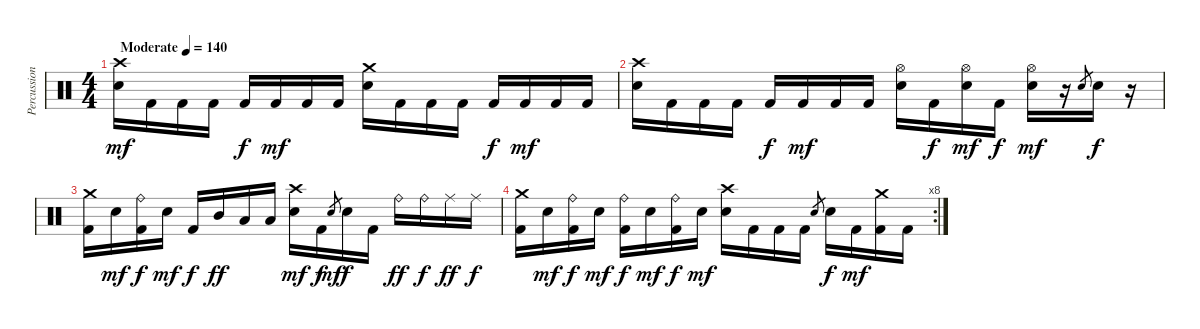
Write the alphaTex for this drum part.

\track ("Percussion" "Percussion") {instrument percussion}
\staff {score}
\articulation defaults
\ts (4 4)
\tempo (140 "Moderate")
\clef neutral
\ks c
("Crash high (hit)" "Electric Snare (hit)").16{dy mf} "Kick (hit) 2".16 "Kick (hit) 2".16 "Kick (hit) 2".16 "Kick (hit) 2".16{dy f} "Kick (hit) 2".16{dy mf} "Kick (hit) 2".16 "Kick (hit) 2".16 ("Crash medium (hit)" "Electric Snare (hit)").16 "Kick (hit) 2".16 "Kick (hit) 2".16 "Kick (hit) 2".16 "Kick (hit) 2".16{dy f} "Kick (hit) 2".16{dy mf} "Kick (hit) 2".16 "Kick (hit) 2".16 |
("Crash high (hit)" "Electric Snare (hit)").16 "Kick (hit) 2".16 "Kick (hit) 2".16 "Kick (hit) 2".16 "Kick (hit) 2".16{dy f} "Kick (hit) 2".16{dy mf} "Kick (hit) 2".16 "Kick (hit) 2".16 ("Hi-Hat (open)" "Electric Snare (hit)").16 "Kick (hit) 2".16{dy f} ("Hi-Hat (open)" "Electric Snare (hit)").16{dy mf} "Kick (hit) 2".16{dy f} ("Hi-Hat (open)" "Electric Snare (hit)").16{dy mf} r.16 "Electric Snare (hit)".8{gr} "Electric Snare (hit)".16{dy f} r.16 |
("Crash medium (hit)" "Kick (hit) 2").16 "Electric Snare (hit)".16{dy mf} ("Ride (bell)" "Kick (hit) 2").16{dy f} "Electric Snare (hit)".16{dy mf} "Kick (hit) 2".16{dy f} "Mid Tom (hit)".16{dy ff} "Low Tom (hit)".16 "Low Floor Tom (hit)".16 ("Crash high (hit)" "Electric Snare (hit)").16{dy mf} "Kick (hit) 2".16{dy f} "Electric Snare (hit)".8{gr dy mf} "Electric Snare (hit)".16{dy f} "Kick (hit) 2".16 "Ride (bell)".16{dy ff} "Ride (bell)".16{dy f} "Ride (middle)".16{dy ff} "Ride (middle)".16{dy f} |
\rc 8
("Crash medium (hit)" "Kick (hit) 2").16 "Electric Snare (hit)".16{dy mf} ("Ride (bell)" "Kick (hit) 2").16{dy f} "Electric Snare (hit)".16{dy mf} ("Ride (bell)" "Kick (hit) 2").16{dy f} "Electric Snare (hit)".16{dy mf} ("Ride (bell)" "Kick (hit) 2").16{dy f} "Electric Snare (hit)".16{dy mf} ("Crash high (hit)" "Electric Snare (hit)").16 "Kick (hit) 2".16 "Kick (hit) 2".16 "Kick (hit) 2".16 "Electric Snare (hit)".8{gr} "Electric Snare (hit)".16{dy f} "Kick (hit) 2".16{dy mf} ("Crash medium (hit)" "Kick (hit) 2").16 "Kick (hit) 2".16
